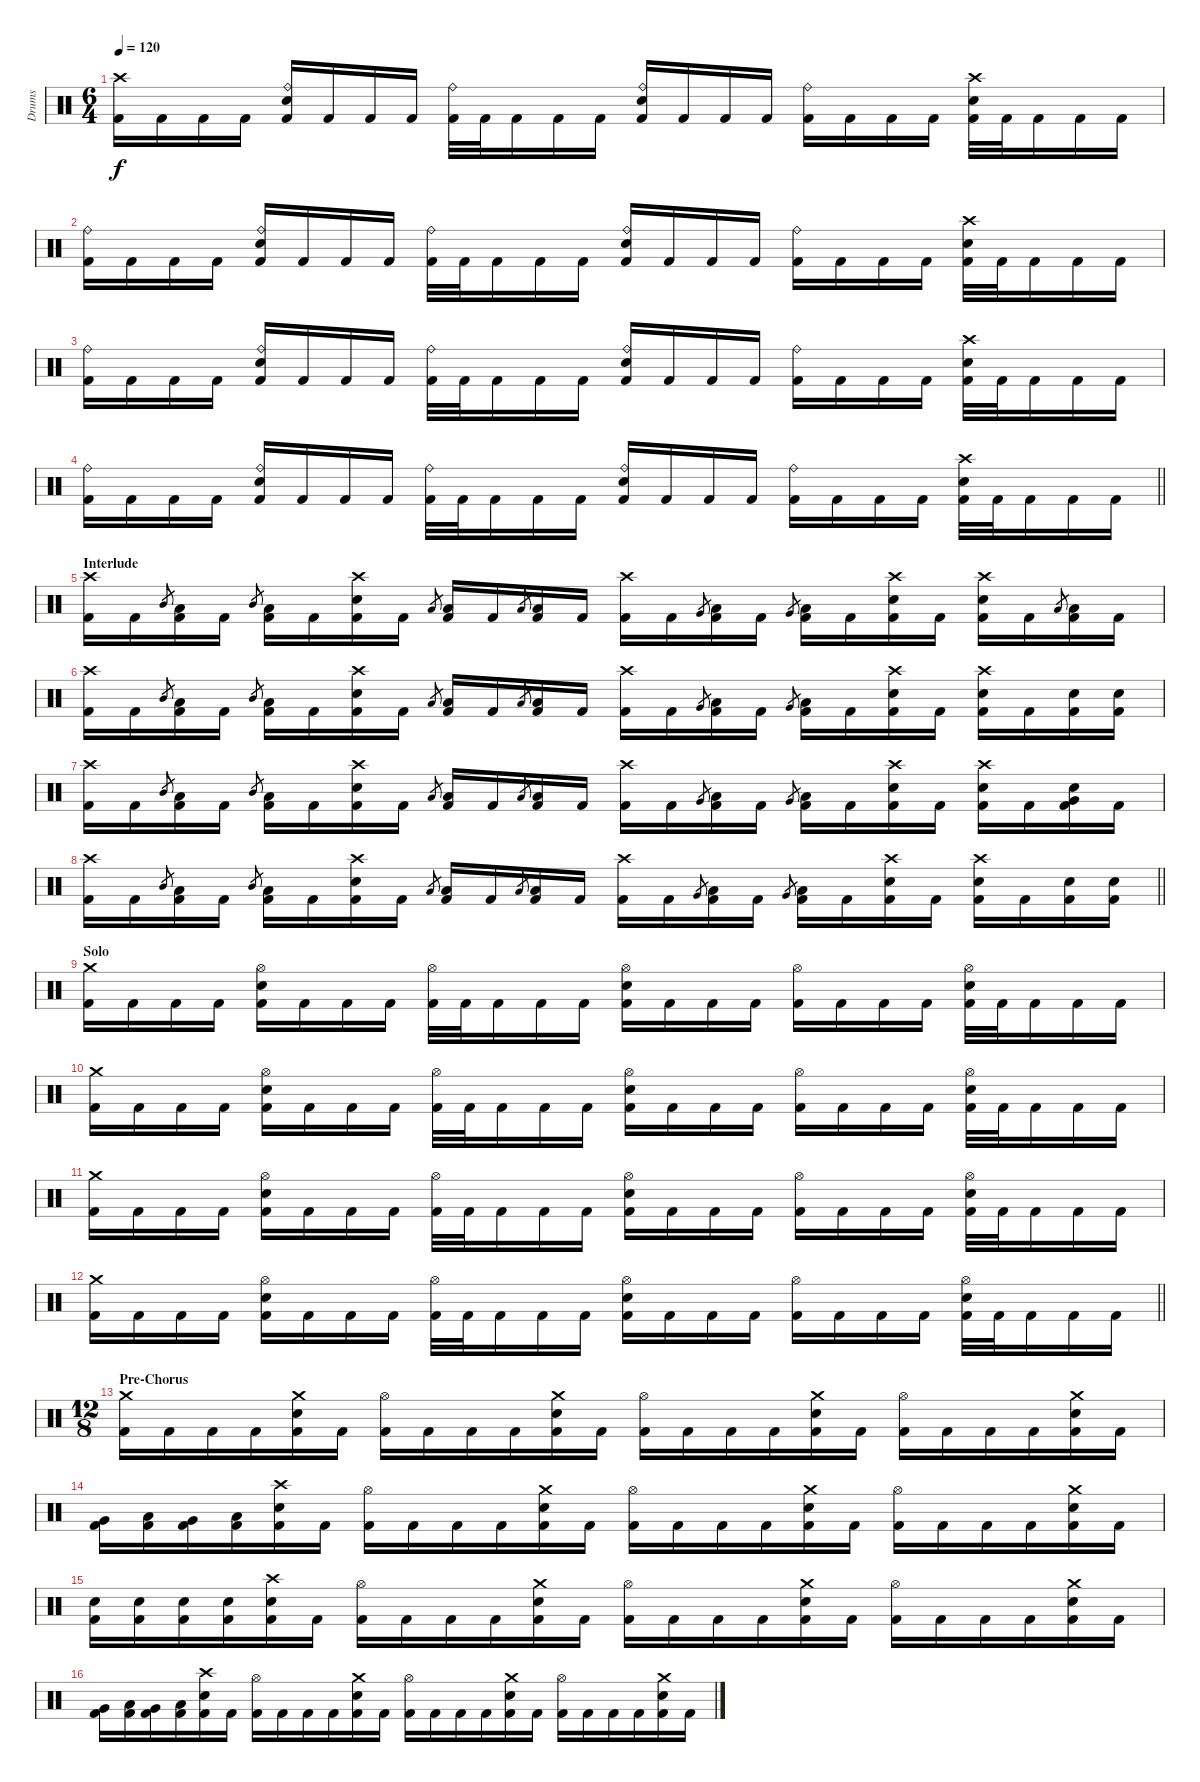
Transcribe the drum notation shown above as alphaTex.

\track ("Drums" "Drums") {instrument percussion}
\staff {score}
\articulation defaults
\ts (6 4)
\section ("" "")
\tempo 120
\clef neutral
\ks c
("Crash high (hit)" "Kick (hit) 2").16{dy f} "Kick (hit) 2".16 "Kick (hit) 2".16 "Kick (hit) 2".16 ("Ride (bell)" "Electric Snare (hit)" "Kick (hit) 2").16 "Kick (hit) 2".16 "Kick (hit) 2".16 "Kick (hit) 2".16 ("Ride (bell)" "Kick (hit) 2").32 "Kick (hit) 2".32 "Kick (hit) 2".16 "Kick (hit) 2".16 "Kick (hit) 2".16 ("Ride (bell)" "Electric Snare (hit)" "Kick (hit) 2").16 "Kick (hit) 2".16 "Kick (hit) 2".16 "Kick (hit) 2".16 ("Ride (bell)" "Kick (hit) 2").16 "Kick (hit) 2".16 "Kick (hit) 2".16 "Kick (hit) 2".16 ("Crash high (hit)" "Electric Snare (hit)" "Kick (hit) 2").32 "Kick (hit) 2".32 "Kick (hit) 2".16 "Kick (hit) 2".16 "Kick (hit) 2".16 |
("Ride (bell)" "Kick (hit) 2").16 "Kick (hit) 2".16 "Kick (hit) 2".16 "Kick (hit) 2".16 ("Ride (bell)" "Electric Snare (hit)" "Kick (hit) 2").16 "Kick (hit) 2".16 "Kick (hit) 2".16 "Kick (hit) 2".16 ("Ride (bell)" "Kick (hit) 2").32 "Kick (hit) 2".32 "Kick (hit) 2".16 "Kick (hit) 2".16 "Kick (hit) 2".16 ("Ride (bell)" "Electric Snare (hit)" "Kick (hit) 2").16 "Kick (hit) 2".16 "Kick (hit) 2".16 "Kick (hit) 2".16 ("Ride (bell)" "Kick (hit) 2").16 "Kick (hit) 2".16 "Kick (hit) 2".16 "Kick (hit) 2".16 ("Crash high (hit)" "Electric Snare (hit)" "Kick (hit) 2").32 "Kick (hit) 2".32 "Kick (hit) 2".16 "Kick (hit) 2".16 "Kick (hit) 2".16 |
("Ride (bell)" "Kick (hit) 2").16 "Kick (hit) 2".16 "Kick (hit) 2".16 "Kick (hit) 2".16 ("Ride (bell)" "Electric Snare (hit)" "Kick (hit) 2").16 "Kick (hit) 2".16 "Kick (hit) 2".16 "Kick (hit) 2".16 ("Ride (bell)" "Kick (hit) 2").32 "Kick (hit) 2".32 "Kick (hit) 2".16 "Kick (hit) 2".16 "Kick (hit) 2".16 ("Ride (bell)" "Electric Snare (hit)" "Kick (hit) 2").16 "Kick (hit) 2".16 "Kick (hit) 2".16 "Kick (hit) 2".16 ("Ride (bell)" "Kick (hit) 2").16 "Kick (hit) 2".16 "Kick (hit) 2".16 "Kick (hit) 2".16 ("Crash high (hit)" "Electric Snare (hit)" "Kick (hit) 2").32 "Kick (hit) 2".32 "Kick (hit) 2".16 "Kick (hit) 2".16 "Kick (hit) 2".16 |
\barLineRight lightlight
("Ride (bell)" "Kick (hit) 2").16 "Kick (hit) 2".16 "Kick (hit) 2".16 "Kick (hit) 2".16 ("Ride (bell)" "Electric Snare (hit)" "Kick (hit) 2").16 "Kick (hit) 2".16 "Kick (hit) 2".16 "Kick (hit) 2".16 ("Ride (bell)" "Kick (hit) 2").32 "Kick (hit) 2".32 "Kick (hit) 2".16 "Kick (hit) 2".16 "Kick (hit) 2".16 ("Ride (bell)" "Electric Snare (hit)" "Kick (hit) 2").16 "Kick (hit) 2".16 "Kick (hit) 2".16 "Kick (hit) 2".16 ("Ride (bell)" "Kick (hit) 2").16 "Kick (hit) 2".16 "Kick (hit) 2".16 "Kick (hit) 2".16 ("Crash high (hit)" "Electric Snare (hit)" "Kick (hit) 2").32 "Kick (hit) 2".32 "Kick (hit) 2".16 "Kick (hit) 2".16 "Kick (hit) 2".16 |
\section ("" "Interlude")
("Crash high (hit)" "Kick (hit) 2").16 "Kick (hit) 2".16 "Mid Tom (hit)".8{gr} ("Low Floor Tom (hit)" "Kick (hit) 2").16 "Kick (hit) 2".16 "Mid Tom (hit)".8{gr} ("Low Floor Tom (hit)" "Kick (hit) 2").16 "Kick (hit) 2".16 ("Crash high (hit)" "Electric Snare (hit)" "Kick (hit) 2").16 "Kick (hit) 2".16 "Low Tom (hit)".8{gr} ("Low Floor Tom (hit)" "Kick (hit) 2").16 "Kick (hit) 2".16 "Low Tom (hit)".8{gr} ("Low Floor Tom (hit)" "Kick (hit) 2").16 "Kick (hit) 2".16 ("Crash high (hit)" "Kick (hit) 2").16 "Kick (hit) 2".16 "Very Low Tom (hit)".8{gr} ("Low Floor Tom (hit)" "Kick (hit) 2").16 "Kick (hit) 2".16 "Very Low Tom (hit)".8{gr} ("Low Floor Tom (hit)" "Kick (hit) 2").16 "Kick (hit) 2".16 ("Crash high (hit)" "Electric Snare (hit)" "Kick (hit) 2").16 "Kick (hit) 2".16 ("Crash high (hit)" "Electric Snare (hit)" "Kick (hit) 2").16 "Kick (hit) 2".16 "Low Floor Tom (hit)".8{gr} ("Low Floor Tom (hit)" "Kick (hit) 2").16 "Kick (hit) 2".16 |
("Crash high (hit)" "Kick (hit) 2").16 "Kick (hit) 2".16 "Mid Tom (hit)".8{gr} ("Low Floor Tom (hit)" "Kick (hit) 2").16 "Kick (hit) 2".16 "Mid Tom (hit)".8{gr} ("Low Floor Tom (hit)" "Kick (hit) 2").16 "Kick (hit) 2".16 ("Crash high (hit)" "Electric Snare (hit)" "Kick (hit) 2").16 "Kick (hit) 2".16 "Low Tom (hit)".8{gr} ("Low Floor Tom (hit)" "Kick (hit) 2").16 "Kick (hit) 2".16 "Low Tom (hit)".8{gr} ("Low Floor Tom (hit)" "Kick (hit) 2").16 "Kick (hit) 2".16 ("Crash high (hit)" "Kick (hit) 2").16 "Kick (hit) 2".16 "Very Low Tom (hit)".8{gr} ("Low Floor Tom (hit)" "Kick (hit) 2").16 "Kick (hit) 2".16 "Very Low Tom (hit)".8{gr} ("Low Floor Tom (hit)" "Kick (hit) 2").16 "Kick (hit) 2".16 ("Crash high (hit)" "Electric Snare (hit)" "Kick (hit) 2").16 "Kick (hit) 2".16 ("Crash high (hit)" "Electric Snare (hit)" "Kick (hit) 2").16 "Kick (hit) 2".16 ("Electric Snare (hit)" "Kick (hit) 2").16 ("Electric Snare (hit)" "Kick (hit) 2").16 |
("Crash high (hit)" "Kick (hit) 2").16 "Kick (hit) 2".16 "Mid Tom (hit)".8{gr} ("Low Floor Tom (hit)" "Kick (hit) 2").16 "Kick (hit) 2".16 "Mid Tom (hit)".8{gr} ("Low Floor Tom (hit)" "Kick (hit) 2").16 "Kick (hit) 2".16 ("Crash high (hit)" "Electric Snare (hit)" "Kick (hit) 2").16 "Kick (hit) 2".16 "Low Tom (hit)".8{gr} ("Low Floor Tom (hit)" "Kick (hit) 2").16 "Kick (hit) 2".16 "Low Tom (hit)".8{gr} ("Low Floor Tom (hit)" "Kick (hit) 2").16 "Kick (hit) 2".16 ("Crash high (hit)" "Kick (hit) 2").16 "Kick (hit) 2".16 "Very Low Tom (hit)".8{gr} ("Low Floor Tom (hit)" "Kick (hit) 2").16 "Kick (hit) 2".16 "Very Low Tom (hit)".8{gr} ("Low Floor Tom (hit)" "Kick (hit) 2").16 "Kick (hit) 2".16 ("Crash high (hit)" "Electric Snare (hit)" "Kick (hit) 2").16 "Kick (hit) 2".16 ("Crash high (hit)" "Electric Snare (hit)" "Kick (hit) 2").16 "Kick (hit) 2".16 ("Very Low Tom (hit)" "Electric Snare (hit)" "Kick (hit) 2").16 "Kick (hit) 2".16 |
\barLineRight lightlight
("Crash high (hit)" "Kick (hit) 2").16 "Kick (hit) 2".16 "Mid Tom (hit)".8{gr} ("Low Floor Tom (hit)" "Kick (hit) 2").16 "Kick (hit) 2".16 "Mid Tom (hit)".8{gr} ("Low Floor Tom (hit)" "Kick (hit) 2").16 "Kick (hit) 2".16 ("Crash high (hit)" "Electric Snare (hit)" "Kick (hit) 2").16 "Kick (hit) 2".16 "Low Tom (hit)".8{gr} ("Low Floor Tom (hit)" "Kick (hit) 2").16 "Kick (hit) 2".16 "Low Tom (hit)".8{gr} ("Low Floor Tom (hit)" "Kick (hit) 2").16 "Kick (hit) 2".16 ("Crash high (hit)" "Kick (hit) 2").16 "Kick (hit) 2".16 "Very Low Tom (hit)".8{gr} ("Low Floor Tom (hit)" "Kick (hit) 2").16 "Kick (hit) 2".16 "Very Low Tom (hit)".8{gr} ("Low Floor Tom (hit)" "Kick (hit) 2").16 "Kick (hit) 2".16 ("Crash high (hit)" "Electric Snare (hit)" "Kick (hit) 2").16 "Kick (hit) 2".16 ("Crash high (hit)" "Electric Snare (hit)" "Kick (hit) 2").16 "Kick (hit) 2".16 ("Electric Snare (hit)" "Kick (hit) 2").16 ("Electric Snare (hit)" "Kick (hit) 2").16 |
\section ("" "Solo")
("Crash medium (hit)" "Kick (hit) 2").16 "Kick (hit) 2".16 "Kick (hit) 2".16 "Kick (hit) 2".16 ("Hi-Hat (open)" "Electric Snare (hit)" "Kick (hit) 2").16 "Kick (hit) 2".16 "Kick (hit) 2".16 "Kick (hit) 2".16 ("Hi-Hat (open)" "Kick (hit) 2").32 "Kick (hit) 2".32 "Kick (hit) 2".16 "Kick (hit) 2".16 "Kick (hit) 2".16 ("Hi-Hat (open)" "Electric Snare (hit)" "Kick (hit) 2").16 "Kick (hit) 2".16 "Kick (hit) 2".16 "Kick (hit) 2".16 ("Hi-Hat (open)" "Kick (hit) 2").16 "Kick (hit) 2".16 "Kick (hit) 2".16 "Kick (hit) 2".16 ("Hi-Hat (open)" "Electric Snare (hit)" "Kick (hit) 2").32 "Kick (hit) 2".32 "Kick (hit) 2".16 "Kick (hit) 2".16 "Kick (hit) 2".16 |
("Crash medium (hit)" "Kick (hit) 2").16 "Kick (hit) 2".16 "Kick (hit) 2".16 "Kick (hit) 2".16 ("Hi-Hat (open)" "Electric Snare (hit)" "Kick (hit) 2").16 "Kick (hit) 2".16 "Kick (hit) 2".16 "Kick (hit) 2".16 ("Hi-Hat (open)" "Kick (hit) 2").32 "Kick (hit) 2".32 "Kick (hit) 2".16 "Kick (hit) 2".16 "Kick (hit) 2".16 ("Hi-Hat (open)" "Electric Snare (hit)" "Kick (hit) 2").16 "Kick (hit) 2".16 "Kick (hit) 2".16 "Kick (hit) 2".16 ("Hi-Hat (open)" "Kick (hit) 2").16 "Kick (hit) 2".16 "Kick (hit) 2".16 "Kick (hit) 2".16 ("Hi-Hat (open)" "Electric Snare (hit)" "Kick (hit) 2").32 "Kick (hit) 2".32 "Kick (hit) 2".16 "Kick (hit) 2".16 "Kick (hit) 2".16 |
("Crash medium (hit)" "Kick (hit) 2").16 "Kick (hit) 2".16 "Kick (hit) 2".16 "Kick (hit) 2".16 ("Hi-Hat (open)" "Electric Snare (hit)" "Kick (hit) 2").16 "Kick (hit) 2".16 "Kick (hit) 2".16 "Kick (hit) 2".16 ("Hi-Hat (open)" "Kick (hit) 2").32 "Kick (hit) 2".32 "Kick (hit) 2".16 "Kick (hit) 2".16 "Kick (hit) 2".16 ("Hi-Hat (open)" "Electric Snare (hit)" "Kick (hit) 2").16 "Kick (hit) 2".16 "Kick (hit) 2".16 "Kick (hit) 2".16 ("Hi-Hat (open)" "Kick (hit) 2").16 "Kick (hit) 2".16 "Kick (hit) 2".16 "Kick (hit) 2".16 ("Hi-Hat (open)" "Electric Snare (hit)" "Kick (hit) 2").32 "Kick (hit) 2".32 "Kick (hit) 2".16 "Kick (hit) 2".16 "Kick (hit) 2".16 |
\barLineRight lightlight
("Crash medium (hit)" "Kick (hit) 2").16 "Kick (hit) 2".16 "Kick (hit) 2".16 "Kick (hit) 2".16 ("Hi-Hat (open)" "Electric Snare (hit)" "Kick (hit) 2").16 "Kick (hit) 2".16 "Kick (hit) 2".16 "Kick (hit) 2".16 ("Hi-Hat (open)" "Kick (hit) 2").32 "Kick (hit) 2".32 "Kick (hit) 2".16 "Kick (hit) 2".16 "Kick (hit) 2".16 ("Hi-Hat (open)" "Electric Snare (hit)" "Kick (hit) 2").16 "Kick (hit) 2".16 "Kick (hit) 2".16 "Kick (hit) 2".16 ("Hi-Hat (open)" "Kick (hit) 2").16 "Kick (hit) 2".16 "Kick (hit) 2".16 "Kick (hit) 2".16 ("Hi-Hat (open)" "Electric Snare (hit)" "Kick (hit) 2").32 "Kick (hit) 2".32 "Kick (hit) 2".16 "Kick (hit) 2".16 "Kick (hit) 2".16 |
\ts (12 8)
\section ("" "Pre-Chorus")
("Crash medium (hit)" "Kick (hit) 2").16 "Kick (hit) 2".16 "Kick (hit) 2".16 "Kick (hit) 2".16 ("Crash medium (hit)" "Electric Snare (hit)" "Kick (hit) 2").16 "Kick (hit) 2".16 ("Hi-Hat (open)" "Kick (hit) 2").16 "Kick (hit) 2".16 "Kick (hit) 2".16 "Kick (hit) 2".16 ("Crash medium (hit)" "Electric Snare (hit)" "Kick (hit) 2").16 "Kick (hit) 2".16 ("Hi-Hat (open)" "Kick (hit) 2").16 "Kick (hit) 2".16 "Kick (hit) 2".16 "Kick (hit) 2".16 ("Crash medium (hit)" "Electric Snare (hit)" "Kick (hit) 2").16 "Kick (hit) 2".16 ("Hi-Hat (open)" "Kick (hit) 2").16 "Kick (hit) 2".16 "Kick (hit) 2".16 "Kick (hit) 2".16 ("Crash medium (hit)" "Electric Snare (hit)" "Kick (hit) 2").16 "Kick (hit) 2".16 |
("Very Low Tom (hit)" "Kick (hit) 2").16 ("Low Tom (hit)" "Kick (hit) 2").16 ("Very Low Tom (hit)" "Kick (hit) 2").16 ("Low Tom (hit)" "Kick (hit) 2").16 ("Crash high (hit)" "Electric Snare (hit)" "Kick (hit) 2").16 "Kick (hit) 2".16 ("Hi-Hat (open)" "Kick (hit) 2").16 "Kick (hit) 2".16 "Kick (hit) 2".16 "Kick (hit) 2".16 ("Crash medium (hit)" "Electric Snare (hit)" "Kick (hit) 2").16 "Kick (hit) 2".16 ("Hi-Hat (open)" "Kick (hit) 2").16 "Kick (hit) 2".16 "Kick (hit) 2".16 "Kick (hit) 2".16 ("Crash medium (hit)" "Electric Snare (hit)" "Kick (hit) 2").16 "Kick (hit) 2".16 ("Hi-Hat (open)" "Kick (hit) 2").16 "Kick (hit) 2".16 "Kick (hit) 2".16 "Kick (hit) 2".16 ("Crash medium (hit)" "Electric Snare (hit)" "Kick (hit) 2").16 "Kick (hit) 2".16 |
("Electric Snare (hit)" "Kick (hit) 2").16 ("Electric Snare (hit)" "Kick (hit) 2").16 ("Electric Snare (hit)" "Kick (hit) 2").16 ("Electric Snare (hit)" "Kick (hit) 2").16 ("Crash high (hit)" "Electric Snare (hit)" "Kick (hit) 2").16 "Kick (hit) 2".16 ("Hi-Hat (open)" "Kick (hit) 2").16 "Kick (hit) 2".16 "Kick (hit) 2".16 "Kick (hit) 2".16 ("Crash medium (hit)" "Electric Snare (hit)" "Kick (hit) 2").16 "Kick (hit) 2".16 ("Hi-Hat (open)" "Kick (hit) 2").16 "Kick (hit) 2".16 "Kick (hit) 2".16 "Kick (hit) 2".16 ("Crash medium (hit)" "Electric Snare (hit)" "Kick (hit) 2").16 "Kick (hit) 2".16 ("Hi-Hat (open)" "Kick (hit) 2").16 "Kick (hit) 2".16 "Kick (hit) 2".16 "Kick (hit) 2".16 ("Crash medium (hit)" "Electric Snare (hit)" "Kick (hit) 2").16 "Kick (hit) 2".16 |
("Very Low Tom (hit)" "Kick (hit) 2").16 ("Low Tom (hit)" "Kick (hit) 2").16 ("Very Low Tom (hit)" "Kick (hit) 2").16 ("Low Tom (hit)" "Kick (hit) 2").16 ("Crash high (hit)" "Electric Snare (hit)" "Kick (hit) 2").16 "Kick (hit) 2".16 ("Hi-Hat (open)" "Kick (hit) 2").16 "Kick (hit) 2".16 "Kick (hit) 2".16 "Kick (hit) 2".16 ("Crash medium (hit)" "Electric Snare (hit)" "Kick (hit) 2").16 "Kick (hit) 2".16 ("Hi-Hat (open)" "Kick (hit) 2").16 "Kick (hit) 2".16 "Kick (hit) 2".16 "Kick (hit) 2".16 ("Crash medium (hit)" "Electric Snare (hit)" "Kick (hit) 2").16 "Kick (hit) 2".16 ("Hi-Hat (open)" "Kick (hit) 2").16 "Kick (hit) 2".16 "Kick (hit) 2".16 "Kick (hit) 2".16 ("Crash medium (hit)" "Electric Snare (hit)" "Kick (hit) 2").16 "Kick (hit) 2".16
